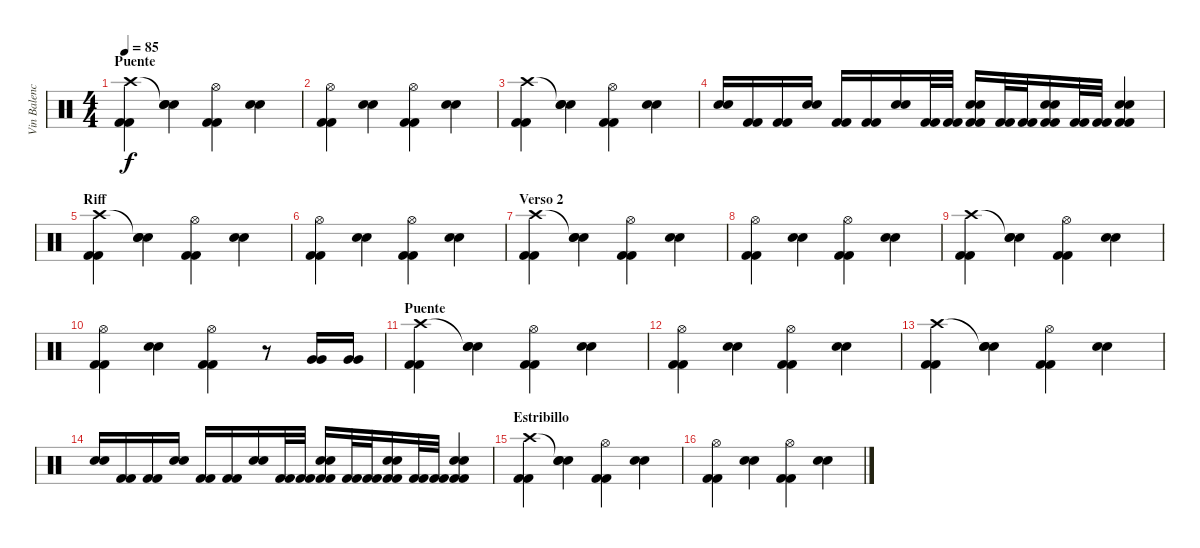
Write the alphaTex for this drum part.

\track ("Vin Balencia (bateria)" "Vin Balenc") {instrument percussion}
\staff {score}
\articulation defaults
\ts (4 4)
\section ("" "Puente")
\tempo 85
\clef neutral
\ks c
("Crash high (hit)" "Kick (hit) 2" "Kick (hit) 2").4{dy f} ("Snare (hit)"{t} "Snare (hit) 2" "Snare (hit) 2").4 ("Hi-Hat (open)" "Kick (hit) 2" "Kick (hit) 2").4 ("Snare (hit) 2" "Snare (hit) 2").4 |
("Hi-Hat (open)" "Kick (hit) 2" "Kick (hit) 2").4 ("Snare (hit) 2" "Snare (hit) 2").4 ("Hi-Hat (open)" "Kick (hit) 2" "Kick (hit) 2").4 ("Snare (hit) 2" "Snare (hit) 2").4 |
("Crash high (hit)" "Kick (hit) 2" "Kick (hit) 2").4 ("Snare (hit)"{t} "Snare (hit) 2" "Snare (hit) 2").4 ("Hi-Hat (open)" "Kick (hit) 2" "Kick (hit) 2").4 ("Snare (hit) 2" "Snare (hit) 2").4 |
("Electric Snare (hit)" "Snare (hit) 2").16 ("Kick (hit) 2" "Kick (hit) 2").16 ("Kick (hit) 2" "Kick (hit) 2").16 ("Snare (hit) 2" "Snare (hit) 2").16 ("Kick (hit) 2" "Kick (hit) 2").16 ("Kick (hit) 2" "Kick (hit) 2").16 ("Snare (hit) 2" "Snare (hit) 2").16 ("Kick (hit) 2" "Kick (hit) 2").32 ("Kick (hit) 2" "Kick (hit) 2").32 ("Snare (hit) 2" "Snare (hit) 2" "Kick (hit) 2" "Kick (hit) 2").16 ("Kick (hit) 2" "Kick (hit) 2").32 ("Kick (hit) 2" "Kick (hit) 2").32 ("Snare (hit) 2" "Snare (hit) 2" "Kick (hit) 2" "Kick (hit) 2").16 ("Kick (hit) 2" "Kick (hit) 2").32 ("Kick (hit) 2" "Kick (hit) 2").32 ("Snare (hit) 2" "Snare (hit) 2" "Kick (hit) 2" "Kick (hit) 2").4 |
\section ("" "Riff")
("Crash high (hit)" "Kick (hit) 2" "Kick (hit) 2").4 ("Snare (hit)"{t} "Snare (hit) 2" "Snare (hit) 2").4 ("Hi-Hat (open)" "Kick (hit) 2" "Kick (hit) 2").4 ("Snare (hit) 2" "Snare (hit) 2").4 |
("Hi-Hat (open)" "Kick (hit) 2" "Kick (hit) 2").4 ("Snare (hit) 2" "Snare (hit) 2").4 ("Hi-Hat (open)" "Kick (hit) 2" "Kick (hit) 2").4 ("Snare (hit) 2" "Snare (hit) 2").4 |
\section ("" "Verso 2")
("Crash high (hit)" "Kick (hit) 2" "Kick (hit) 2").4 ("Snare (hit)"{t} "Snare (hit) 2" "Snare (hit) 2").4 ("Hi-Hat (open)" "Kick (hit) 2" "Kick (hit) 2").4 ("Snare (hit) 2" "Snare (hit) 2").4 |
("Hi-Hat (open)" "Kick (hit) 2" "Kick (hit) 2").4 ("Snare (hit) 2" "Snare (hit) 2").4 ("Hi-Hat (open)" "Kick (hit) 2" "Kick (hit) 2").4 ("Snare (hit) 2" "Snare (hit) 2").4 |
("Crash high (hit)" "Kick (hit) 2" "Kick (hit) 2").4 ("Snare (hit)"{t} "Snare (hit) 2" "Snare (hit) 2").4 ("Hi-Hat (open)" "Kick (hit) 2" "Kick (hit) 2").4 ("Snare (hit) 2" "Snare (hit) 2").4 |
("Hi-Hat (open)" "Kick (hit) 2" "Kick (hit) 2").4 ("Snare (hit) 2" "Snare (hit) 2").4 ("Hi-Hat (open)" "Kick (hit) 2" "Kick (hit) 2").4 r.8 ("Very Low Tom (hit)" "Very Low Tom (hit)").16 ("Very Low Tom (hit)" "Very Low Tom (hit)").16 |
\section ("" "Puente")
("Crash high (hit)" "Kick (hit) 2" "Kick (hit) 2").4 ("Snare (hit)"{t} "Snare (hit) 2" "Snare (hit) 2").4 ("Hi-Hat (open)" "Kick (hit) 2" "Kick (hit) 2").4 ("Snare (hit) 2" "Snare (hit) 2").4 |
("Hi-Hat (open)" "Kick (hit) 2" "Kick (hit) 2").4 ("Snare (hit) 2" "Snare (hit) 2").4 ("Hi-Hat (open)" "Kick (hit) 2" "Kick (hit) 2").4 ("Snare (hit) 2" "Snare (hit) 2").4 |
("Crash high (hit)" "Kick (hit) 2" "Kick (hit) 2").4 ("Snare (hit)"{t} "Snare (hit) 2" "Snare (hit) 2").4 ("Hi-Hat (open)" "Kick (hit) 2" "Kick (hit) 2").4 ("Snare (hit) 2" "Snare (hit) 2").4 |
("Electric Snare (hit)" "Snare (hit) 2").16 ("Kick (hit) 2" "Kick (hit) 2").16 ("Kick (hit) 2" "Kick (hit) 2").16 ("Snare (hit) 2" "Snare (hit) 2").16 ("Kick (hit) 2" "Kick (hit) 2").16 ("Kick (hit) 2" "Kick (hit) 2").16 ("Snare (hit) 2" "Snare (hit) 2").16 ("Kick (hit) 2" "Kick (hit) 2").32 ("Kick (hit) 2" "Kick (hit) 2").32 ("Snare (hit) 2" "Snare (hit) 2" "Kick (hit) 2" "Kick (hit) 2").16 ("Kick (hit) 2" "Kick (hit) 2").32 ("Kick (hit) 2" "Kick (hit) 2").32 ("Snare (hit) 2" "Snare (hit) 2" "Kick (hit) 2" "Kick (hit) 2").16 ("Kick (hit) 2" "Kick (hit) 2").32 ("Kick (hit) 2" "Kick (hit) 2").32 ("Snare (hit) 2" "Snare (hit) 2" "Kick (hit) 2" "Kick (hit) 2").4 |
\section ("" "Estribillo")
("Crash high (hit)" "Kick (hit) 2" "Kick (hit) 2").4 ("Snare (hit)"{t} "Snare (hit) 2" "Snare (hit) 2").4 ("Hi-Hat (open)" "Kick (hit) 2" "Kick (hit) 2").4 ("Snare (hit) 2" "Snare (hit) 2").4 |
("Hi-Hat (open)" "Kick (hit) 2" "Kick (hit) 2").4 ("Snare (hit) 2" "Snare (hit) 2").4 ("Hi-Hat (open)" "Kick (hit) 2" "Kick (hit) 2").4 ("Snare (hit) 2" "Snare (hit) 2").4
